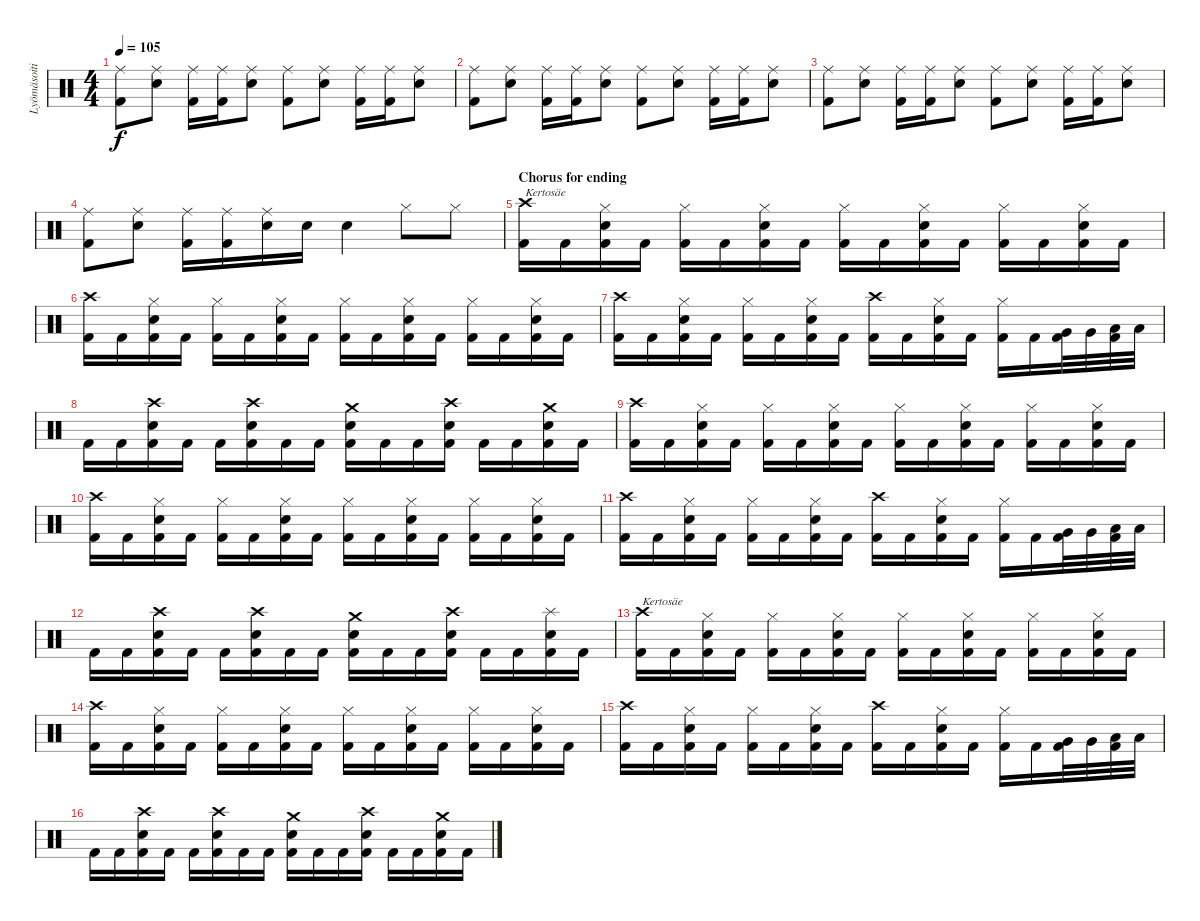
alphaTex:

\track ("Lyömäsoitin" "Lyömäsoiti") {instrument percussion}
\staff {score}
\articulation defaults
\ts (4 4)
\tempo 105
\clef neutral
\ks c
("Ride (middle)" "Kick (hit) 2").8{dy f} ("Ride (middle)" "Snare (hit) 2").8 ("Ride (middle)" "Kick (hit) 2").16 ("Ride (middle)" "Kick (hit) 2").16 ("Ride (middle)" "Snare (hit) 2").8 ("Ride (middle)" "Kick (hit) 2").8 ("Ride (middle)" "Snare (hit) 2").8 ("Ride (middle)" "Kick (hit) 2").16 ("Ride (middle)" "Kick (hit) 2").16 ("Ride (middle)" "Snare (hit) 2").8 |
("Ride (middle)" "Kick (hit) 2").8 ("Ride (middle)" "Snare (hit) 2").8 ("Ride (middle)" "Kick (hit) 2").16 ("Ride (middle)" "Kick (hit) 2").16 ("Ride (middle)" "Snare (hit) 2").8 ("Ride (middle)" "Kick (hit) 2").8 ("Ride (middle)" "Snare (hit) 2").8 ("Ride (middle)" "Kick (hit) 2").16 ("Ride (middle)" "Kick (hit) 2").16 ("Ride (middle)" "Snare (hit) 2").8 |
("Ride (middle)" "Kick (hit) 2").8 ("Ride (middle)" "Snare (hit) 2").8 ("Ride (middle)" "Kick (hit) 2").16 ("Ride (middle)" "Kick (hit) 2").16 ("Ride (middle)" "Snare (hit) 2").8 ("Ride (middle)" "Kick (hit) 2").8 ("Ride (middle)" "Snare (hit) 2").8 ("Ride (middle)" "Kick (hit) 2").16 ("Ride (middle)" "Kick (hit) 2").16 ("Ride (middle)" "Snare (hit) 2").8 |
("Ride (middle)" "Kick (hit) 2").8 ("Ride (middle)" "Snare (hit) 2").8 ("Ride (middle)" "Kick (hit) 2").16 ("Ride (middle)" "Kick (hit) 2").16 ("Ride (middle)" "Snare (hit) 2").16 "Snare (hit) 2".16 "Snare (hit) 2".4 "Hi-Hat (closed)".8 "Hi-Hat (closed)".8 |
\section ("" "Chorus for ending")
("Crash high (hit)" "Kick (hit) 2").16{txt "Kertosäe"} "Kick (hit) 2".16 ("Hi-Hat (closed)" "Snare (hit) 2" "Kick (hit) 2").16 "Kick (hit) 2".16 ("Hi-Hat (closed)" "Kick (hit) 2").16 "Kick (hit) 2".16 ("Hi-Hat (closed)" "Snare (hit) 2" "Kick (hit) 2").16 "Kick (hit) 2".16 ("Hi-Hat (closed)" "Kick (hit) 2").16 "Kick (hit) 2".16 ("Hi-Hat (closed)" "Snare (hit) 2" "Kick (hit) 2").16 "Kick (hit) 2".16 ("Hi-Hat (closed)" "Kick (hit) 2").16 "Kick (hit) 2".16 ("Hi-Hat (closed)" "Snare (hit) 2" "Kick (hit) 2").16 "Kick (hit) 2".16 |
("Crash high (hit)" "Kick (hit) 2").16 "Kick (hit) 2".16 ("Hi-Hat (closed)" "Snare (hit) 2" "Kick (hit) 2").16 "Kick (hit) 2".16 ("Hi-Hat (closed)" "Kick (hit) 2").16 "Kick (hit) 2".16 ("Hi-Hat (closed)" "Snare (hit) 2" "Kick (hit) 2").16 "Kick (hit) 2".16 ("Hi-Hat (closed)" "Kick (hit) 2").16 "Kick (hit) 2".16 ("Hi-Hat (closed)" "Snare (hit) 2" "Kick (hit) 2").16 "Kick (hit) 2".16 ("Hi-Hat (closed)" "Kick (hit) 2").16 "Kick (hit) 2".16 ("Hi-Hat (closed)" "Snare (hit) 2" "Kick (hit) 2").16 "Kick (hit) 2".16 |
("Crash high (hit)" "Kick (hit) 2").16 "Kick (hit) 2".16 ("Hi-Hat (closed)" "Snare (hit) 2" "Kick (hit) 2").16 "Kick (hit) 2".16 ("Hi-Hat (closed)" "Kick (hit) 2").16 "Kick (hit) 2".16 ("Hi-Hat (closed)" "Snare (hit) 2" "Kick (hit) 2").16 "Kick (hit) 2".16 ("Crash high (hit)" "Kick (hit) 2").16 "Kick (hit) 2".16 ("Hi-Hat (closed)" "Snare (hit) 2" "Kick (hit) 2").16 "Kick (hit) 2".16 ("Hi-Hat (closed)" "Kick (hit) 2").16 "Kick (hit) 2".16 ("Very Low Tom (hit)" "Kick (hit) 2").32 "Very Low Tom (hit)".32 ("Low Floor Tom (hit)" "Kick (hit) 2").32 "Low Floor Tom (hit)".32 |
"Kick (hit) 2".16 "Kick (hit) 2".16 ("Crash high (hit)" "Snare (hit) 2" "Kick (hit) 2").16 "Kick (hit) 2".16 "Kick (hit) 2".16 ("Crash high (hit)" "Snare (hit) 2" "Kick (hit) 2").16 "Kick (hit) 2".16 "Kick (hit) 2".16 ("Crash medium (hit)" "Snare (hit) 2" "Kick (hit) 2").16 "Kick (hit) 2".16 "Kick (hit) 2".16 ("Crash high (hit)" "Snare (hit) 2" "Kick (hit) 2").16 "Kick (hit) 2".16 "Kick (hit) 2".16 ("Crash medium (hit)" "Snare (hit) 2" "Kick (hit) 2").16 "Kick (hit) 2".16 |
("Crash high (hit)" "Kick (hit) 2").16 "Kick (hit) 2".16 ("Hi-Hat (closed)" "Snare (hit) 2" "Kick (hit) 2").16 "Kick (hit) 2".16 ("Hi-Hat (closed)" "Kick (hit) 2").16 "Kick (hit) 2".16 ("Hi-Hat (closed)" "Snare (hit) 2" "Kick (hit) 2").16 "Kick (hit) 2".16 ("Hi-Hat (closed)" "Kick (hit) 2").16 "Kick (hit) 2".16 ("Hi-Hat (closed)" "Snare (hit) 2" "Kick (hit) 2").16 "Kick (hit) 2".16 ("Hi-Hat (closed)" "Kick (hit) 2").16 "Kick (hit) 2".16 ("Hi-Hat (closed)" "Snare (hit) 2" "Kick (hit) 2").16 "Kick (hit) 2".16 |
("Crash high (hit)" "Kick (hit) 2").16 "Kick (hit) 2".16 ("Hi-Hat (closed)" "Snare (hit) 2" "Kick (hit) 2").16 "Kick (hit) 2".16 ("Hi-Hat (closed)" "Kick (hit) 2").16 "Kick (hit) 2".16 ("Hi-Hat (closed)" "Snare (hit) 2" "Kick (hit) 2").16 "Kick (hit) 2".16 ("Hi-Hat (closed)" "Kick (hit) 2").16 "Kick (hit) 2".16 ("Hi-Hat (closed)" "Snare (hit) 2" "Kick (hit) 2").16 "Kick (hit) 2".16 ("Hi-Hat (closed)" "Kick (hit) 2").16 "Kick (hit) 2".16 ("Hi-Hat (closed)" "Snare (hit) 2" "Kick (hit) 2").16 "Kick (hit) 2".16 |
("Crash high (hit)" "Kick (hit) 2").16 "Kick (hit) 2".16 ("Hi-Hat (closed)" "Snare (hit) 2" "Kick (hit) 2").16 "Kick (hit) 2".16 ("Hi-Hat (closed)" "Kick (hit) 2").16 "Kick (hit) 2".16 ("Hi-Hat (closed)" "Snare (hit) 2" "Kick (hit) 2").16 "Kick (hit) 2".16 ("Crash high (hit)" "Kick (hit) 2").16 "Kick (hit) 2".16 ("Hi-Hat (closed)" "Snare (hit) 2" "Kick (hit) 2").16 "Kick (hit) 2".16 ("Hi-Hat (closed)" "Kick (hit) 2").16 "Kick (hit) 2".16 ("Very Low Tom (hit)" "Kick (hit) 2").32 "Very Low Tom (hit)".32 ("Low Floor Tom (hit)" "Kick (hit) 2").32 "Low Floor Tom (hit)".32 |
"Kick (hit) 2".16 "Kick (hit) 2".16 ("Crash high (hit)" "Snare (hit) 2" "Kick (hit) 2").16 "Kick (hit) 2".16 "Kick (hit) 2".16 ("Crash high (hit)" "Snare (hit) 2" "Kick (hit) 2").16 "Kick (hit) 2".16 "Kick (hit) 2".16 ("Crash medium (hit)" "Snare (hit) 2" "Kick (hit) 2").16 "Kick (hit) 2".16 "Kick (hit) 2".16 ("Crash high (hit)" "Snare (hit) 2" "Kick (hit) 2").16 "Kick (hit) 2".16 "Kick (hit) 2".16 ("Splash (hit)" "Snare (hit) 2" "Kick (hit) 2").16 "Kick (hit) 2".16 |
("Crash high (hit)" "Kick (hit) 2").16{txt "Kertosäe"} "Kick (hit) 2".16 ("Hi-Hat (closed)" "Snare (hit) 2" "Kick (hit) 2").16 "Kick (hit) 2".16 ("Hi-Hat (closed)" "Kick (hit) 2").16 "Kick (hit) 2".16 ("Hi-Hat (closed)" "Snare (hit) 2" "Kick (hit) 2").16 "Kick (hit) 2".16 ("Hi-Hat (closed)" "Kick (hit) 2").16 "Kick (hit) 2".16 ("Hi-Hat (closed)" "Snare (hit) 2" "Kick (hit) 2").16 "Kick (hit) 2".16 ("Hi-Hat (closed)" "Kick (hit) 2").16 "Kick (hit) 2".16 ("Hi-Hat (closed)" "Snare (hit) 2" "Kick (hit) 2").16 "Kick (hit) 2".16 |
("Crash high (hit)" "Kick (hit) 2").16 "Kick (hit) 2".16 ("Hi-Hat (closed)" "Snare (hit) 2" "Kick (hit) 2").16 "Kick (hit) 2".16 ("Hi-Hat (closed)" "Kick (hit) 2").16 "Kick (hit) 2".16 ("Hi-Hat (closed)" "Snare (hit) 2" "Kick (hit) 2").16 "Kick (hit) 2".16 ("Hi-Hat (closed)" "Kick (hit) 2").16 "Kick (hit) 2".16 ("Hi-Hat (closed)" "Snare (hit) 2" "Kick (hit) 2").16 "Kick (hit) 2".16 ("Hi-Hat (closed)" "Kick (hit) 2").16 "Kick (hit) 2".16 ("Hi-Hat (closed)" "Snare (hit) 2" "Kick (hit) 2").16 "Kick (hit) 2".16 |
("Crash high (hit)" "Kick (hit) 2").16 "Kick (hit) 2".16 ("Hi-Hat (closed)" "Snare (hit) 2" "Kick (hit) 2").16 "Kick (hit) 2".16 ("Hi-Hat (closed)" "Kick (hit) 2").16 "Kick (hit) 2".16 ("Hi-Hat (closed)" "Snare (hit) 2" "Kick (hit) 2").16 "Kick (hit) 2".16 ("Crash high (hit)" "Kick (hit) 2").16 "Kick (hit) 2".16 ("Hi-Hat (closed)" "Snare (hit) 2" "Kick (hit) 2").16 "Kick (hit) 2".16 ("Hi-Hat (closed)" "Kick (hit) 2").16 "Kick (hit) 2".16 ("Very Low Tom (hit)" "Kick (hit) 2").32 "Very Low Tom (hit)".32 ("Low Floor Tom (hit)" "Kick (hit) 2").32 "Low Floor Tom (hit)".32 |
"Kick (hit) 2".16 "Kick (hit) 2".16 ("Crash high (hit)" "Snare (hit) 2" "Kick (hit) 2").16 "Kick (hit) 2".16 "Kick (hit) 2".16 ("Crash high (hit)" "Snare (hit) 2" "Kick (hit) 2").16 "Kick (hit) 2".16 "Kick (hit) 2".16 ("Crash medium (hit)" "Snare (hit) 2" "Kick (hit) 2").16 "Kick (hit) 2".16 "Kick (hit) 2".16 ("Crash high (hit)" "Snare (hit) 2" "Kick (hit) 2").16 "Kick (hit) 2".16 "Kick (hit) 2".16 ("Crash medium (hit)" "Snare (hit) 2" "Kick (hit) 2").16 "Kick (hit) 2".16
